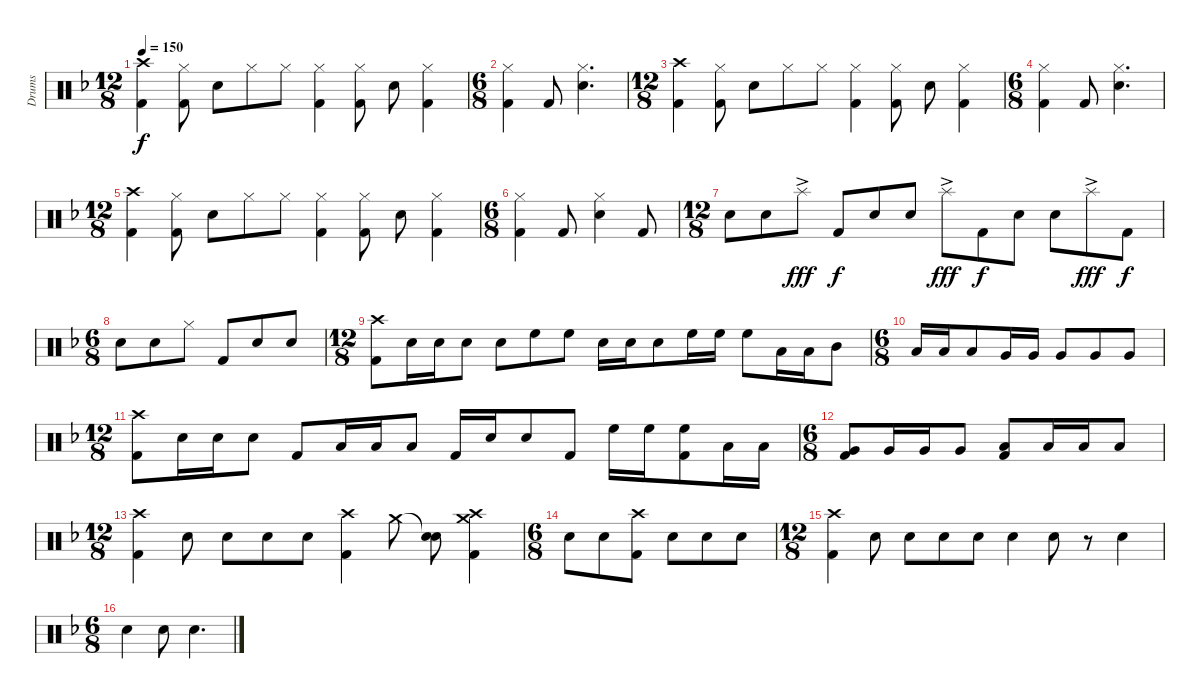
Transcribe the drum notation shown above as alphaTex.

\track ("Drums" "Drums") {instrument percussion}
\staff {score}
\articulation defaults
\ts (12 8)
\tempo 150
\clef neutral
\ks f
("Crash high (hit)" "Kick (hit) 2").4{dy f} ("Hi-Hat (closed)" "Kick (hit) 2").8 "Electric Snare (hit)".8 "Hi-Hat (closed)".8 "Hi-Hat (closed)".8 ("Hi-Hat (closed)" "Kick (hit) 2").4 ("Hi-Hat (closed)" "Kick (hit) 2").8 "Electric Snare (hit)".8 ("Hi-Hat (closed)" "Kick (hit) 2").4 |
\ts (6 8)
("Hi-Hat (closed)" "Kick (hit) 2").4 "Kick (hit) 2".8 ("Hi-Hat (closed)" "Electric Snare (hit)").4{d} |
\ts (12 8)
("Crash high (hit)" "Kick (hit) 2").4 ("Hi-Hat (closed)" "Kick (hit) 2").8 "Electric Snare (hit)".8 "Hi-Hat (closed)".8 "Hi-Hat (closed)".8 ("Hi-Hat (closed)" "Kick (hit) 2").4 ("Hi-Hat (closed)" "Kick (hit) 2").8 "Electric Snare (hit)".8 ("Hi-Hat (closed)" "Kick (hit) 2").4 |
\ts (6 8)
("Hi-Hat (closed)" "Kick (hit) 2").4 "Kick (hit) 2".8 ("Hi-Hat (closed)" "Electric Snare (hit)").4{d} |
\ts (12 8)
("Crash high (hit)" "Kick (hit) 2").4 ("Hi-Hat (closed)" "Kick (hit) 2").8 "Electric Snare (hit)".8 "Hi-Hat (closed)".8 "Hi-Hat (closed)".8 ("Hi-Hat (closed)" "Kick (hit) 2").4 ("Hi-Hat (closed)" "Kick (hit) 2").8 "Electric Snare (hit)".8 ("Hi-Hat (closed)" "Kick (hit) 2").4 |
\ts (6 8)
("Hi-Hat (closed)" "Kick (hit) 2").4 "Kick (hit) 2".8 ("Hi-Hat (closed)" "Electric Snare (hit)").4 "Kick (hit) 2".8 |
\ts (12 8)
"Electric Snare (hit)".8 "Electric Snare (hit)".8 "Splash (hit)"{ac}.8{dy fff} "Kick (hit) 2".8{dy f} "Electric Snare (hit)".8 "Electric Snare (hit)".8 "Splash (hit)"{ac}.8{dy fff} "Kick (hit) 2".8{dy f} "Electric Snare (hit)".8 "Electric Snare (hit)".8 "Splash (hit)"{ac}.8{dy fff} "Kick (hit) 2".8{dy f} |
\ts (6 8)
"Electric Snare (hit)".8 "Electric Snare (hit)".8 "Hi-Hat (closed)".8 "Kick (hit) 2".8 "Electric Snare (hit)".8 "Electric Snare (hit)".8 |
\ts (12 8)
("Crash high (hit)" "Kick (hit) 2").8 "Electric Snare (hit)".16 "Electric Snare (hit)".16 "Electric Snare (hit)".8 "Electric Snare (hit)".8 "High Floor Tom (hit)".8 "High Floor Tom (hit)".8 "Electric Snare (hit)".16 "Electric Snare (hit)".16 "Electric Snare (hit)".8 "High Floor Tom (hit)".16 "High Floor Tom (hit)".16 "High Floor Tom (hit)".8 "Low Tom (hit)".16 "Low Tom (hit)".16 "Mid Tom (hit)".8 |
\ts (6 8)
"Low Tom (hit)".16 "Low Tom (hit)".16 "Low Tom (hit)".8 "Very Low Tom (hit)".16 "Very Low Tom (hit)".16 "Very Low Tom (hit)".8 "Very Low Tom (hit)".8 "Very Low Tom (hit)".8 |
\ts (12 8)
("Crash high (hit)" "Kick (hit) 2").8 "Electric Snare (hit)".16 "Electric Snare (hit)".16 "Electric Snare (hit)".8 "Kick (hit) 2".8 "Low Tom (hit)".16 "Low Tom (hit)".16 "Low Tom (hit)".8 "Kick (hit) 2".16 "Electric Snare (hit)".16 "Electric Snare (hit)".8 "Kick (hit) 2".8 "High Floor Tom (hit)".16 "High Floor Tom (hit)".16 ("High Floor Tom (hit)" "Kick (hit) 2").8 "Low Tom (hit)".16 "Low Tom (hit)".16 |
\ts (6 8)
("Very Low Tom (hit)" "Kick (hit) 2").8 "Very Low Tom (hit)".16 "Very Low Tom (hit)".16 "Very Low Tom (hit)".8 ("Low Floor Tom (hit)" "Kick (hit) 2").8 "Low Floor Tom (hit)".16 "Low Floor Tom (hit)".16 "Low Floor Tom (hit)".8 |
\ts (12 8)
("Crash high (hit)" "Kick (hit) 2").4 "Electric Snare (hit)".8 "Electric Snare (hit)".8 "Electric Snare (hit)".8 "Electric Snare (hit)".8 ("Crash high (hit)" "Kick (hit) 2").4 "Crash medium (hit)".8 ("Snare (hit)"{t} "Electric Snare (hit)").8 ("Crash high (hit)" "Crash medium (hit)" "Kick (hit) 2").4 |
\ts (6 8)
"Electric Snare (hit)".8 "Electric Snare (hit)".8 ("Crash high (hit)" "Kick (hit) 2").8 "Electric Snare (hit)".8 "Electric Snare (hit)".8 "Electric Snare (hit)".8 |
\ts (12 8)
("Crash high (hit)" "Kick (hit) 2").4 "Electric Snare (hit)".8 "Electric Snare (hit)".8 "Electric Snare (hit)".8 "Electric Snare (hit)".8 "Electric Snare (hit)".4 "Electric Snare (hit)".8 r.8 "Electric Snare (hit)".4 |
\ts (6 8)
"Electric Snare (hit)".4 "Electric Snare (hit)".8 "Electric Snare (hit)".4{d}
